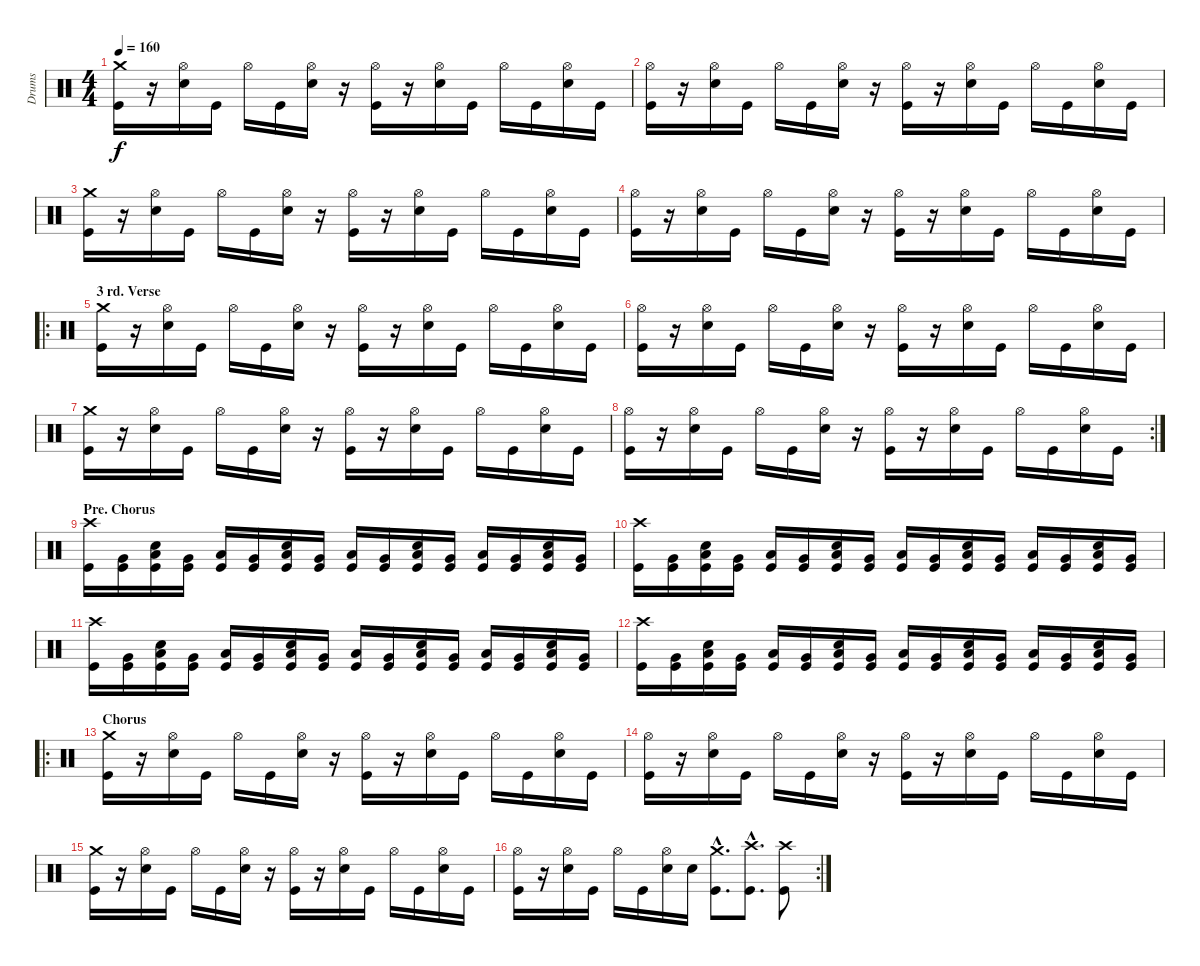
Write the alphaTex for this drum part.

\track ("Drums" "Drums") {instrument percussion}
\staff {score}
\articulation defaults
\ts (4 4)
\tempo 160
\clef neutral
\ks c
("Crash medium (hit)" "Kick (hit)").16{dy f} r.16 ("Hi-Hat (open)" "Electric Snare (hit)").16 "Kick (hit)".16 "Hi-Hat (open)".16 "Kick (hit)".16 ("Hi-Hat (open)" "Electric Snare (hit)").16 r.16 ("Hi-Hat (open)" "Kick (hit)").16 r.16 ("Hi-Hat (open)" "Electric Snare (hit)").16 "Kick (hit)".16 "Hi-Hat (open)".16 "Kick (hit)".16 ("Hi-Hat (open)" "Electric Snare (hit)").16 "Kick (hit)".16 |
("Hi-Hat (open)" "Kick (hit)").16 r.16 ("Hi-Hat (open)" "Electric Snare (hit)").16 "Kick (hit)".16 "Hi-Hat (open)".16 "Kick (hit)".16 ("Hi-Hat (open)" "Electric Snare (hit)").16 r.16 ("Hi-Hat (open)" "Kick (hit)").16 r.16 ("Hi-Hat (open)" "Electric Snare (hit)").16 "Kick (hit)".16 "Hi-Hat (open)".16 "Kick (hit)".16 ("Hi-Hat (open)" "Electric Snare (hit)").16 "Kick (hit)".16 |
("Crash medium (hit)" "Kick (hit)").16 r.16 ("Hi-Hat (open)" "Electric Snare (hit)").16 "Kick (hit)".16 "Hi-Hat (open)".16 "Kick (hit)".16 ("Hi-Hat (open)" "Electric Snare (hit)").16 r.16 ("Hi-Hat (open)" "Kick (hit)").16 r.16 ("Hi-Hat (open)" "Electric Snare (hit)").16 "Kick (hit)".16 "Hi-Hat (open)".16 "Kick (hit)".16 ("Hi-Hat (open)" "Electric Snare (hit)").16 "Kick (hit)".16 |
("Hi-Hat (open)" "Kick (hit)").16 r.16 ("Hi-Hat (open)" "Electric Snare (hit)").16 "Kick (hit)".16 "Hi-Hat (open)".16 "Kick (hit)".16 ("Hi-Hat (open)" "Electric Snare (hit)").16 r.16 ("Hi-Hat (open)" "Kick (hit)").16 r.16 ("Hi-Hat (open)" "Electric Snare (hit)").16 "Kick (hit)".16 "Hi-Hat (open)".16 "Kick (hit)".16 ("Hi-Hat (open)" "Electric Snare (hit)").16 "Kick (hit)".16 |
\ro
\section ("" "3 rd. Verse")
("Crash medium (hit)" "Kick (hit)").16 r.16 ("Hi-Hat (open)" "Electric Snare (hit)").16 "Kick (hit)".16 "Hi-Hat (open)".16 "Kick (hit)".16 ("Hi-Hat (open)" "Electric Snare (hit)").16 r.16 ("Hi-Hat (open)" "Kick (hit)").16 r.16 ("Hi-Hat (open)" "Electric Snare (hit)").16 "Kick (hit)".16 "Hi-Hat (open)".16 "Kick (hit)".16 ("Hi-Hat (open)" "Electric Snare (hit)").16 "Kick (hit)".16 |
("Hi-Hat (open)" "Kick (hit)").16 r.16 ("Hi-Hat (open)" "Electric Snare (hit)").16 "Kick (hit)".16 "Hi-Hat (open)".16 "Kick (hit)".16 ("Hi-Hat (open)" "Electric Snare (hit)").16 r.16 ("Hi-Hat (open)" "Kick (hit)").16 r.16 ("Hi-Hat (open)" "Electric Snare (hit)").16 "Kick (hit)".16 "Hi-Hat (open)".16 "Kick (hit)".16 ("Hi-Hat (open)" "Electric Snare (hit)").16 "Kick (hit)".16 |
("Crash medium (hit)" "Kick (hit)").16 r.16 ("Hi-Hat (open)" "Electric Snare (hit)").16 "Kick (hit)".16 "Hi-Hat (open)".16 "Kick (hit)".16 ("Hi-Hat (open)" "Electric Snare (hit)").16 r.16 ("Hi-Hat (open)" "Kick (hit)").16 r.16 ("Hi-Hat (open)" "Electric Snare (hit)").16 "Kick (hit)".16 "Hi-Hat (open)".16 "Kick (hit)".16 ("Hi-Hat (open)" "Electric Snare (hit)").16 "Kick (hit)".16 |
\rc 2
("Hi-Hat (open)" "Kick (hit)").16 r.16 ("Hi-Hat (open)" "Electric Snare (hit)").16 "Kick (hit)".16 "Hi-Hat (open)".16 "Kick (hit)".16 ("Hi-Hat (open)" "Electric Snare (hit)").16 r.16 ("Hi-Hat (open)" "Kick (hit)").16 r.16 ("Hi-Hat (open)" "Electric Snare (hit)").16 "Kick (hit)".16 "Hi-Hat (open)".16 "Kick (hit)".16 ("Hi-Hat (open)" "Electric Snare (hit)").16 "Kick (hit)".16 |
\section ("" "Pre. Chorus")
("Crash high (hit)" "Kick (hit)").16 ("Very Low Tom (hit)" "Kick (hit)").16 ("Low Tom (hit)" "Electric Snare (hit)" "Kick (hit)").16 ("Very Low Tom (hit)" "Kick (hit)").16 ("Low Tom (hit)" "Kick (hit)").16 ("Very Low Tom (hit)" "Kick (hit)").16 ("Low Tom (hit)" "Electric Snare (hit)" "Kick (hit)").16 ("Very Low Tom (hit)" "Kick (hit)").16 ("Low Tom (hit)" "Kick (hit)").16 ("Very Low Tom (hit)" "Kick (hit)").16 ("Low Tom (hit)" "Electric Snare (hit)" "Kick (hit)").16 ("Very Low Tom (hit)" "Kick (hit)").16 ("Low Tom (hit)" "Kick (hit)").16 ("Very Low Tom (hit)" "Kick (hit)").16 ("Low Tom (hit)" "Electric Snare (hit)" "Kick (hit)").16 ("Very Low Tom (hit)" "Kick (hit)").16 |
("Crash high (hit)" "Kick (hit)").16 ("Very Low Tom (hit)" "Kick (hit)").16 ("Low Tom (hit)" "Electric Snare (hit)" "Kick (hit)").16 ("Very Low Tom (hit)" "Kick (hit)").16 ("Low Tom (hit)" "Kick (hit)").16 ("Very Low Tom (hit)" "Kick (hit)").16 ("Low Tom (hit)" "Electric Snare (hit)" "Kick (hit)").16 ("Very Low Tom (hit)" "Kick (hit)").16 ("Low Tom (hit)" "Kick (hit)").16 ("Very Low Tom (hit)" "Kick (hit)").16 ("Low Tom (hit)" "Electric Snare (hit)" "Kick (hit)").16 ("Very Low Tom (hit)" "Kick (hit)").16 ("Low Tom (hit)" "Kick (hit)").16 ("Very Low Tom (hit)" "Kick (hit)").16 ("Low Tom (hit)" "Electric Snare (hit)" "Kick (hit)").16 ("Very Low Tom (hit)" "Kick (hit)").16 |
("Crash high (hit)" "Kick (hit)").16 ("Very Low Tom (hit)" "Kick (hit)").16 ("Low Tom (hit)" "Electric Snare (hit)" "Kick (hit)").16 ("Very Low Tom (hit)" "Kick (hit)").16 ("Low Tom (hit)" "Kick (hit)").16 ("Very Low Tom (hit)" "Kick (hit)").16 ("Low Tom (hit)" "Electric Snare (hit)" "Kick (hit)").16 ("Very Low Tom (hit)" "Kick (hit)").16 ("Low Tom (hit)" "Kick (hit)").16 ("Very Low Tom (hit)" "Kick (hit)").16 ("Low Tom (hit)" "Electric Snare (hit)" "Kick (hit)").16 ("Very Low Tom (hit)" "Kick (hit)").16 ("Low Tom (hit)" "Kick (hit)").16 ("Very Low Tom (hit)" "Kick (hit)").16 ("Low Tom (hit)" "Electric Snare (hit)" "Kick (hit)").16 ("Very Low Tom (hit)" "Kick (hit)").16 |
("Crash high (hit)" "Kick (hit)").16 ("Very Low Tom (hit)" "Kick (hit)").16 ("Low Tom (hit)" "Electric Snare (hit)" "Kick (hit)").16 ("Very Low Tom (hit)" "Kick (hit)").16 ("Low Tom (hit)" "Kick (hit)").16 ("Very Low Tom (hit)" "Kick (hit)").16 ("Low Tom (hit)" "Electric Snare (hit)" "Kick (hit)").16 ("Very Low Tom (hit)" "Kick (hit)").16 ("Low Tom (hit)" "Kick (hit)").16 ("Very Low Tom (hit)" "Kick (hit)").16 ("Low Tom (hit)" "Electric Snare (hit)" "Kick (hit)").16 ("Very Low Tom (hit)" "Kick (hit)").16 ("Low Tom (hit)" "Kick (hit)").16 ("Very Low Tom (hit)" "Kick (hit)").16 ("Low Tom (hit)" "Electric Snare (hit)" "Kick (hit)").16 ("Very Low Tom (hit)" "Kick (hit)").16 |
\ro
\section ("" "Chorus")
("Crash medium (hit)" "Kick (hit)").16 r.16 ("Hi-Hat (open)" "Electric Snare (hit)").16 "Kick (hit)".16 "Hi-Hat (open)".16 "Kick (hit)".16 ("Hi-Hat (open)" "Electric Snare (hit)").16 r.16 ("Hi-Hat (open)" "Kick (hit)").16 r.16 ("Hi-Hat (open)" "Electric Snare (hit)").16 "Kick (hit)".16 "Hi-Hat (open)".16 "Kick (hit)".16 ("Hi-Hat (open)" "Electric Snare (hit)").16 "Kick (hit)".16 |
("Hi-Hat (open)" "Kick (hit)").16 r.16 ("Hi-Hat (open)" "Electric Snare (hit)").16 "Kick (hit)".16 "Hi-Hat (open)".16 "Kick (hit)".16 ("Hi-Hat (open)" "Electric Snare (hit)").16 r.16 ("Hi-Hat (open)" "Kick (hit)").16 r.16 ("Hi-Hat (open)" "Electric Snare (hit)").16 "Kick (hit)".16 "Hi-Hat (open)".16 "Kick (hit)".16 ("Hi-Hat (open)" "Electric Snare (hit)").16 "Kick (hit)".16 |
("Crash medium (hit)" "Kick (hit)").16 r.16 ("Hi-Hat (open)" "Electric Snare (hit)").16 "Kick (hit)".16 "Hi-Hat (open)".16 "Kick (hit)".16 ("Hi-Hat (open)" "Electric Snare (hit)").16 r.16 ("Hi-Hat (open)" "Kick (hit)").16 r.16 ("Hi-Hat (open)" "Electric Snare (hit)").16 "Kick (hit)".16 "Hi-Hat (open)".16 "Kick (hit)".16 ("Hi-Hat (open)" "Electric Snare (hit)").16 "Kick (hit)".16 |
\rc 2
("Hi-Hat (open)" "Kick (hit)").16 r.16 ("Hi-Hat (open)" "Electric Snare (hit)").16 "Kick (hit)".16 "Hi-Hat (open)".16 "Kick (hit)".16 ("Hi-Hat (open)" "Electric Snare (hit)").16 "Electric Snare (hit)".16 ("Crash medium (hit)"{hac} "Kick (hit)"{hac}).8{d} ("Crash high (hit)"{hac} "Kick (hit)"{hac}).8{d} ("Crash high (hit)" "Kick (hit)").8
